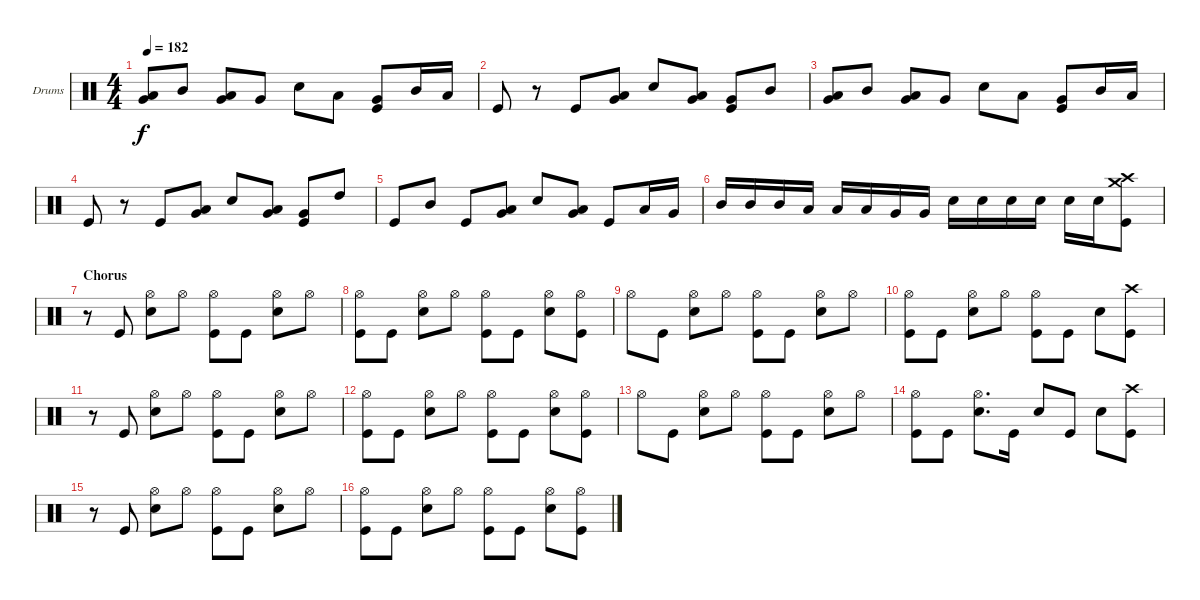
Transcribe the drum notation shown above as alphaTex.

\defaultSystemsLayout 4
\bracketExtendMode groupsimilarinstruments
\firstSystemTrackNameOrientation horizontal
\otherSystemsTrackNameOrientation horizontal
\track ("Drumkit" "Drums") {instrument percussion}
\staff {score}
\articulation defaults
\ts (4 4)
\tempo 182
\clef neutral
\ks c
("Very Low Tom (hit)" "Low Tom (hit)").8{dy f} "Mid Tom (hit)".8 ("Very Low Tom (hit)" "Low Tom (hit)").8 "Very Low Tom (hit)".8 "Snare (hit) 2".8 "Low Tom (hit)".8 ("Very Low Tom (hit)" "Kick (hit)").8 "Mid Tom (hit)".16 "Low Tom (hit)".16 |
"Kick (hit)".8 r.8 "Kick (hit)".8 ("Low Tom (hit)" "Very Low Tom (hit)").8 "Snare (hit) 2".8 ("Very Low Tom (hit)" "Low Tom (hit)").8 ("Kick (hit)" "Very Low Tom (hit)").8 "Mid Tom (hit)".8 |
("Very Low Tom (hit)" "Low Tom (hit)").8 "Mid Tom (hit)".8 ("Very Low Tom (hit)" "Low Tom (hit)").8 "Very Low Tom (hit)".8 "Snare (hit) 2".8 "Low Tom (hit)".8 ("Very Low Tom (hit)" "Kick (hit)").8 "Mid Tom (hit)".16 "Low Tom (hit)".16 |
"Kick (hit)".8 r.8 "Kick (hit)".8 ("Low Tom (hit)" "Very Low Tom (hit)").8 "Snare (hit) 2".8 ("Very Low Tom (hit)" "Low Tom (hit)").8 ("Kick (hit)" "Very Low Tom (hit)").8 "High Tom (hit)".8 |
"Kick (hit)".8 "Mid Tom (hit)".8 "Kick (hit)".8 ("Very Low Tom (hit)" "Low Tom (hit)").8 "Snare (hit) 2".8 ("Very Low Tom (hit)" "Low Tom (hit)").8 "Kick (hit)".8 "Low Tom (hit)".16 "Very Low Tom (hit)".16 |
"Mid Tom (hit)".16 "Mid Tom (hit)".16 "Mid Tom (hit)".16 "Low Tom (hit)".16 "Low Tom (hit)".16 "Low Tom (hit)".16 "Very Low Tom (hit)".16 "Very Low Tom (hit)".16 "Snare (hit) 2".16 "Snare (hit) 2".16 "Snare (hit) 2".16 "Snare (hit) 2".16 "Snare (hit) 2".16 "Snare (hit) 2".16 ("Kick (hit)" "Crash medium (hit)" "Crash high (hit)").8 |
\section ("" "Chorus")
r.8 "Kick (hit)".8 ("Snare (hit) 2" "Hi-Hat (open)").8 "Hi-Hat (open)".8 ("Kick (hit)" "Hi-Hat (open)").8 "Kick (hit)".8 ("Snare (hit) 2" "Hi-Hat (open)").8 "Hi-Hat (open)".8 |
("Kick (hit)" "Hi-Hat (open)").8 "Kick (hit)".8 ("Snare (hit) 2" "Hi-Hat (open)").8 "Hi-Hat (open)".8 ("Kick (hit)" "Hi-Hat (open)").8 "Kick (hit)".8 ("Snare (hit) 2" "Hi-Hat (open)").8 ("Kick (hit)" "Hi-Hat (open)").8 |
"Hi-Hat (open)".8 "Kick (hit)".8 ("Snare (hit) 2" "Hi-Hat (open)").8 "Hi-Hat (open)".8 ("Kick (hit)" "Hi-Hat (open)").8 "Kick (hit)".8 ("Snare (hit) 2" "Hi-Hat (open)").8 "Hi-Hat (open)".8 |
("Kick (hit)" "Hi-Hat (open)").8 "Kick (hit)".8 ("Snare (hit) 2" "Hi-Hat (open)").8 "Hi-Hat (open)".8 ("Kick (hit)" "Hi-Hat (open)").8 "Kick (hit)".8 "Snare (hit) 2".8 ("Kick (hit)" "Crash high (hit)").8 |
r.8 "Kick (hit)".8 ("Snare (hit) 2" "Hi-Hat (open)").8 "Hi-Hat (open)".8 ("Kick (hit)" "Hi-Hat (open)").8 "Kick (hit)".8 ("Snare (hit) 2" "Hi-Hat (open)").8 "Hi-Hat (open)".8 |
("Kick (hit)" "Hi-Hat (open)").8 "Kick (hit)".8 ("Snare (hit) 2" "Hi-Hat (open)").8 "Hi-Hat (open)".8 ("Kick (hit)" "Hi-Hat (open)").8 "Kick (hit)".8 ("Snare (hit) 2" "Hi-Hat (open)").8 ("Kick (hit)" "Hi-Hat (open)").8 |
"Hi-Hat (open)".8 "Kick (hit)".8 ("Snare (hit) 2" "Hi-Hat (open)").8 "Hi-Hat (open)".8 ("Kick (hit)" "Hi-Hat (open)").8 "Kick (hit)".8 ("Snare (hit) 2" "Hi-Hat (open)").8 "Hi-Hat (open)".8 |
("Kick (hit)" "Hi-Hat (open)").8 "Kick (hit)".8 ("Snare (hit) 2" "Hi-Hat (open)").8{d} "Kick (hit)".16 "Snare (hit) 2".8 "Kick (hit)".8 "Snare (hit) 2".8 ("Kick (hit)" "Crash high (hit)").8 |
r.8 "Kick (hit)".8 ("Snare (hit) 2" "Hi-Hat (open)").8 "Hi-Hat (open)".8 ("Kick (hit)" "Hi-Hat (open)").8 "Kick (hit)".8 ("Snare (hit) 2" "Hi-Hat (open)").8 "Hi-Hat (open)".8 |
("Kick (hit)" "Hi-Hat (open)").8 "Kick (hit)".8 ("Snare (hit) 2" "Hi-Hat (open)").8 "Hi-Hat (open)".8 ("Kick (hit)" "Hi-Hat (open)").8 "Kick (hit)".8 ("Snare (hit) 2" "Hi-Hat (open)").8 ("Kick (hit)" "Hi-Hat (open)").8
